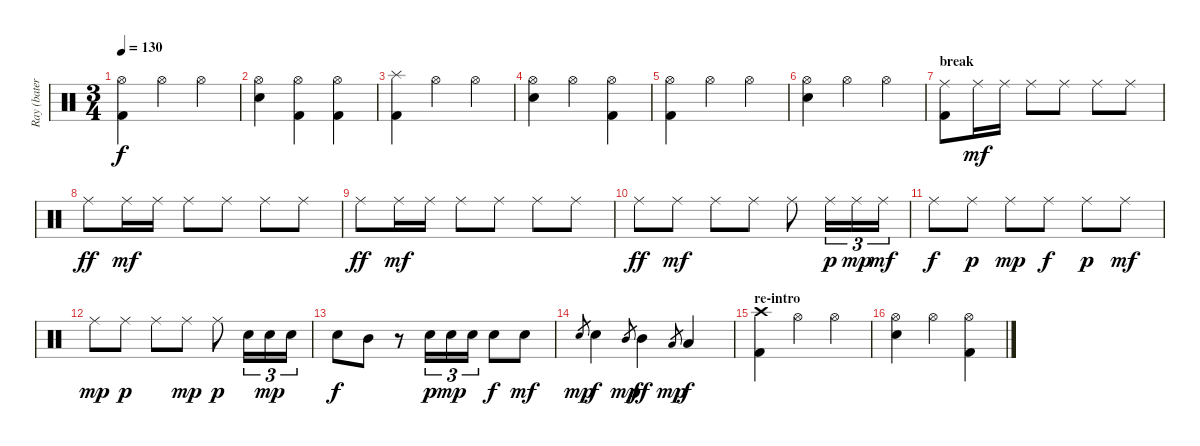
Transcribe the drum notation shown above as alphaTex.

\track ("Ray (batería)" "Ray (bater") {instrument percussion}
\staff {score}
\articulation defaults
\ts (3 4)
\tempo 130
\clef neutral
\ks c
("Hi-Hat (open)" "Kick (hit) 2").4{dy f} "Hi-Hat (open)".4 "Hi-Hat (open)".4 |
("Hi-Hat (open)" "Snare (hit) 2").4 ("Hi-Hat (open)" "Kick (hit) 2").4 ("Hi-Hat (open)" "Kick (hit) 2").4 |
("Splash (hit)" "Kick (hit) 2").4 "Hi-Hat (open)".4 "Hi-Hat (open)".4 |
("Hi-Hat (open)" "Snare (hit) 2").4 "Hi-Hat (open)".4 ("Hi-Hat (open)" "Kick (hit) 2").4 |
("Hi-Hat (open)" "Kick (hit) 2").4 "Hi-Hat (open)".4 "Hi-Hat (open)".4 |
("Hi-Hat (open)" "Snare (hit) 2").4 "Hi-Hat (open)".4 "Hi-Hat (open)".4 |
\section ("" "break")
("Ride (middle)" "Kick (hit) 2").8 "Ride (middle)".16{dy mf} "Ride (middle)".16 "Ride (middle)".8 "Ride (middle)".8 "Ride (middle)".8 "Ride (middle)".8 |
"Ride (middle)".8{dy ff} "Ride (middle)".16{dy mf} "Ride (middle)".16 "Ride (middle)".8 "Ride (middle)".8 "Ride (middle)".8 "Ride (middle)".8 |
"Ride (middle)".8{dy ff} "Ride (middle)".16{dy mf} "Ride (middle)".16 "Ride (middle)".8 "Ride (middle)".8 "Ride (middle)".8 "Ride (middle)".8 |
"Ride (middle)".8{dy ff} "Ride (middle)".8{dy mf} "Ride (middle)".8 "Ride (middle)".8 "Ride (middle)".8 "Ride (middle)".16{tu (3 2) dy p} "Ride (middle)".16{tu (3 2) dy mp} "Ride (middle)".16{tu (3 2) dy mf} |
"Ride (middle)".8{dy f} "Ride (middle)".8{dy p} "Ride (middle)".8{dy mp} "Ride (middle)".8{dy f} "Ride (middle)".8{dy p} "Ride (middle)".8{dy mf} |
"Ride (middle)".8{dy mp} "Ride (middle)".8{dy p} "Ride (middle)".8 "Ride (middle)".8{dy mp} "Ride (middle)".8{dy p} "Snare (hit) 2".16{tu (3 2)} "Snare (hit) 2".16{tu (3 2) dy mp} "Snare (hit) 2".16{tu (3 2)} |
"Snare (hit) 2".8{dy f} "Mid Tom (hit)".8 r.8 "Snare (hit) 2".16{tu (3 2) dy p} "Snare (hit) 2".16{tu (3 2) dy mp} "Snare (hit) 2".16{tu (3 2)} "Snare (hit) 2".8{dy f} "Snare (hit) 2".8{dy mf} |
"Snare (hit) 2".8{gr dy mp} "Snare (hit) 2".4{dy f} "Mid Tom (hit)".8{gr dy mp} "Mid Tom (hit)".4{dy ff} "Low Tom (hit)".8{gr dy mp} "Low Tom (hit)".4{dy f} |
\section ("" "re-intro")
("Crash high (hit)" "Kick (hit) 2").4 "Hi-Hat (open)".4 "Hi-Hat (open)".4 |
("Hi-Hat (open)" "Snare (hit) 2").4 "Hi-Hat (open)".4 ("Hi-Hat (open)" "Kick (hit) 2").4
